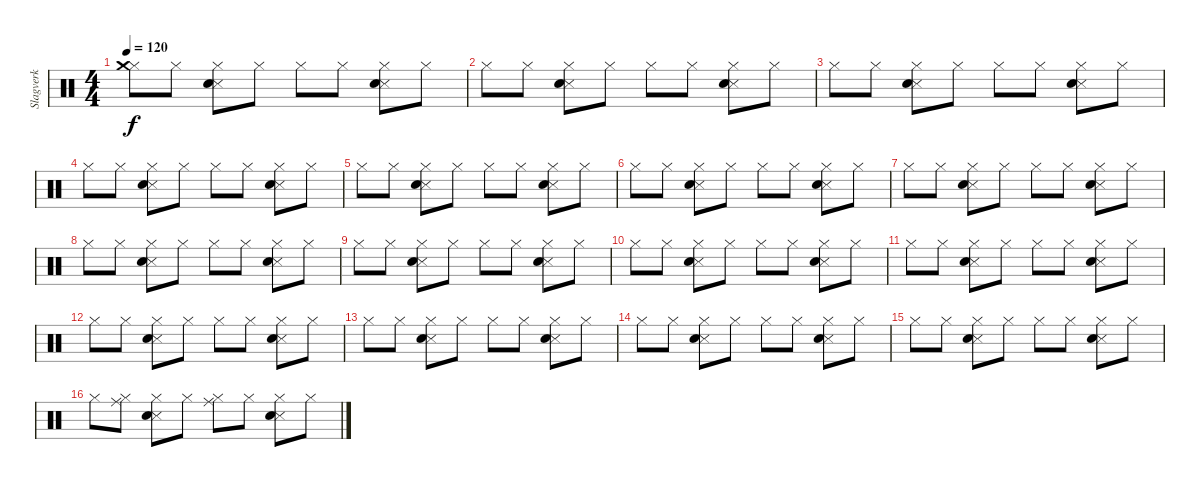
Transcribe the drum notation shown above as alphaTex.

\track ("Slagverk" "Slagverk") {instrument percussion}
\staff {score}
\articulation defaults
\ts (4 4)
\tempo 120
\clef neutral
\ks c
("Hi-Hat (closed)" "Crash medium (hit)").8{dy f} "Hi-Hat (closed)".8 ("Hi-Hat (closed)" "Snare (side stick) 3" "Snare (hit) 2").8 "Hi-Hat (closed)".8 "Hi-Hat (closed)".8 "Hi-Hat (closed)".8 ("Hi-Hat (closed)" "Snare (side stick) 3" "Snare (hit) 2").8 "Hi-Hat (closed)".8 |
"Hi-Hat (closed)".8 "Hi-Hat (closed)".8 ("Hi-Hat (closed)" "Snare (side stick) 3" "Snare (hit) 2").8 "Hi-Hat (closed)".8 "Hi-Hat (closed)".8 "Hi-Hat (closed)".8 ("Hi-Hat (closed)" "Snare (side stick) 3" "Snare (hit) 2").8 "Hi-Hat (closed)".8 |
"Hi-Hat (closed)".8 "Hi-Hat (closed)".8 ("Hi-Hat (closed)" "Snare (side stick) 3" "Snare (hit) 2").8 "Hi-Hat (closed)".8 "Hi-Hat (closed)".8 "Hi-Hat (closed)".8 ("Hi-Hat (closed)" "Snare (side stick) 3" "Snare (hit) 2").8 "Hi-Hat (closed)".8 |
"Hi-Hat (closed)".8 "Hi-Hat (closed)".8 ("Hi-Hat (closed)" "Snare (side stick) 3" "Snare (hit) 2").8 "Hi-Hat (closed)".8 "Hi-Hat (closed)".8 "Hi-Hat (closed)".8 ("Hi-Hat (closed)" "Snare (side stick) 3" "Snare (hit) 2").8 "Hi-Hat (closed)".8 |
"Hi-Hat (closed)".8 "Hi-Hat (closed)".8 ("Hi-Hat (closed)" "Snare (side stick) 3" "Snare (hit) 2").8 "Hi-Hat (closed)".8 "Hi-Hat (closed)".8 "Hi-Hat (closed)".8 ("Hi-Hat (closed)" "Snare (side stick) 3" "Snare (hit) 2").8 "Hi-Hat (closed)".8 |
"Hi-Hat (closed)".8 "Hi-Hat (closed)".8 ("Hi-Hat (closed)" "Snare (side stick) 3" "Snare (hit) 2").8 "Hi-Hat (closed)".8 "Hi-Hat (closed)".8 "Hi-Hat (closed)".8 ("Hi-Hat (closed)" "Snare (side stick) 3" "Snare (hit) 2").8 "Hi-Hat (closed)".8 |
"Hi-Hat (closed)".8 "Hi-Hat (closed)".8 ("Hi-Hat (closed)" "Snare (side stick) 3" "Snare (hit) 2").8 "Hi-Hat (closed)".8 "Hi-Hat (closed)".8 "Hi-Hat (closed)".8 ("Hi-Hat (closed)" "Snare (side stick) 3" "Snare (hit) 2").8 "Hi-Hat (closed)".8 |
"Hi-Hat (closed)".8 "Hi-Hat (closed)".8 ("Hi-Hat (closed)" "Snare (side stick) 3" "Snare (hit) 2").8 "Hi-Hat (closed)".8 "Hi-Hat (closed)".8 "Hi-Hat (closed)".8 ("Hi-Hat (closed)" "Snare (side stick) 3" "Snare (hit) 2").8 "Hi-Hat (closed)".8 |
"Hi-Hat (closed)".8 "Hi-Hat (closed)".8 ("Hi-Hat (closed)" "Snare (side stick) 3" "Snare (hit) 2").8 "Hi-Hat (closed)".8 "Hi-Hat (closed)".8 "Hi-Hat (closed)".8 ("Hi-Hat (closed)" "Snare (side stick) 3" "Snare (hit) 2").8 "Hi-Hat (closed)".8 |
"Hi-Hat (closed)".8 "Hi-Hat (closed)".8 ("Hi-Hat (closed)" "Snare (side stick) 3" "Snare (hit) 2").8 "Hi-Hat (closed)".8 "Hi-Hat (closed)".8 "Hi-Hat (closed)".8 ("Hi-Hat (closed)" "Snare (side stick) 3" "Snare (hit) 2").8 "Hi-Hat (closed)".8 |
"Hi-Hat (closed)".8 "Hi-Hat (closed)".8 ("Hi-Hat (closed)" "Snare (side stick) 3" "Snare (hit) 2").8 "Hi-Hat (closed)".8 "Hi-Hat (closed)".8 "Hi-Hat (closed)".8 ("Hi-Hat (closed)" "Snare (side stick) 3" "Snare (hit) 2").8 "Hi-Hat (closed)".8 |
"Hi-Hat (closed)".8 "Hi-Hat (closed)".8 ("Hi-Hat (closed)" "Snare (side stick) 3" "Snare (hit) 2").8 "Hi-Hat (closed)".8 "Hi-Hat (closed)".8 "Hi-Hat (closed)".8 ("Hi-Hat (closed)" "Snare (side stick) 3" "Snare (hit) 2").8 "Hi-Hat (closed)".8 |
"Hi-Hat (closed)".8 "Hi-Hat (closed)".8 ("Hi-Hat (closed)" "Snare (side stick) 3" "Snare (hit) 2").8 "Hi-Hat (closed)".8 "Hi-Hat (closed)".8 "Hi-Hat (closed)".8 ("Hi-Hat (closed)" "Snare (side stick) 3" "Snare (hit) 2").8 "Hi-Hat (closed)".8 |
"Hi-Hat (closed)".8 "Hi-Hat (closed)".8 ("Hi-Hat (closed)" "Snare (side stick) 3" "Snare (hit) 2").8 "Hi-Hat (closed)".8 "Hi-Hat (closed)".8 "Hi-Hat (closed)".8 ("Hi-Hat (closed)" "Snare (side stick) 3" "Snare (hit) 2").8 "Hi-Hat (closed)".8 |
"Hi-Hat (closed)".8 "Hi-Hat (closed)".8 ("Hi-Hat (closed)" "Snare (side stick) 3" "Snare (hit) 2").8 "Hi-Hat (closed)".8 "Hi-Hat (closed)".8 "Hi-Hat (closed)".8 ("Hi-Hat (closed)" "Snare (side stick) 3" "Snare (hit) 2").8 "Hi-Hat (closed)".8 |
"Hi-Hat (closed)".8 ("Hi-Hat (closed)" "Ride (middle)").8 ("Hi-Hat (closed)" "Snare (side stick) 3" "Snare (hit) 2").8 "Hi-Hat (closed)".8 ("Hi-Hat (closed)" "Ride (middle)").8 "Hi-Hat (closed)".8 ("Hi-Hat (closed)" "Snare (side stick) 3" "Snare (hit) 2").8 "Hi-Hat (closed)".8
